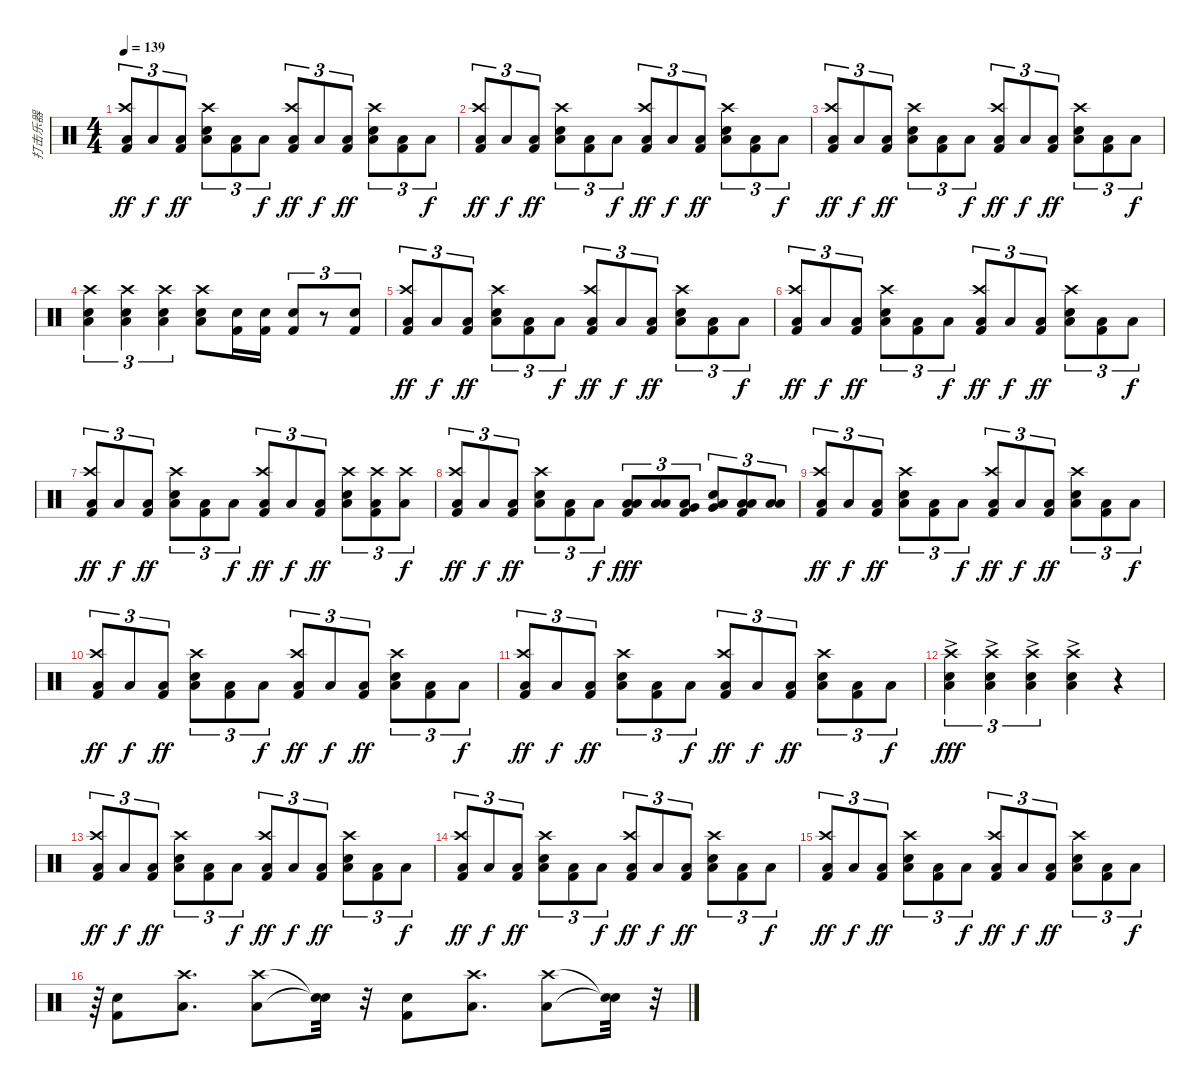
\track ("打击乐器" "打击乐器") {instrument percussion}
\staff {score}
\articulation defaults
\ts (4 4)
\tempo 139
\clef neutral
\ks c
("Kick (hit) 2" "Crash high (hit)" "Low Floor Tom (hit)").8{tu (3 2) dy ff} "Low Floor Tom (hit)".8{tu (3 2) dy f} ("Kick (hit) 2" "Low Floor Tom (hit)").8{tu (3 2) dy ff} ("Snare (hit) 2" "Crash high (hit)" "Low Floor Tom (hit)").8{tu (3 2)} ("Kick (hit) 2" "Low Floor Tom (hit)").8{tu (3 2)} "Low Floor Tom (hit)".8{tu (3 2) dy f} ("Kick (hit) 2" "Crash high (hit)" "Low Floor Tom (hit)").8{tu (3 2) dy ff} "Low Floor Tom (hit)".8{tu (3 2) dy f} ("Kick (hit) 2" "Low Floor Tom (hit)").8{tu (3 2) dy ff} ("Snare (hit) 2" "Crash high (hit)" "Low Floor Tom (hit)").8{tu (3 2)} ("Kick (hit) 2" "Low Floor Tom (hit)").8{tu (3 2)} "Low Floor Tom (hit)".8{tu (3 2) dy f} |
("Kick (hit) 2" "Crash high (hit)" "Low Floor Tom (hit)").8{tu (3 2) dy ff} "Low Floor Tom (hit)".8{tu (3 2) dy f} ("Kick (hit) 2" "Low Floor Tom (hit)").8{tu (3 2) dy ff} ("Snare (hit) 2" "Crash high (hit)" "Low Floor Tom (hit)").8{tu (3 2)} ("Kick (hit) 2" "Low Floor Tom (hit)").8{tu (3 2)} "Low Floor Tom (hit)".8{tu (3 2) dy f} ("Kick (hit) 2" "Crash high (hit)" "Low Floor Tom (hit)").8{tu (3 2) dy ff} "Low Floor Tom (hit)".8{tu (3 2) dy f} ("Kick (hit) 2" "Low Floor Tom (hit)").8{tu (3 2) dy ff} ("Snare (hit) 2" "Crash high (hit)" "Low Floor Tom (hit)").8{tu (3 2)} ("Kick (hit) 2" "Low Floor Tom (hit)").8{tu (3 2)} "Low Floor Tom (hit)".8{tu (3 2) dy f} |
("Kick (hit) 2" "Crash high (hit)" "Low Floor Tom (hit)").8{tu (3 2) dy ff} "Low Floor Tom (hit)".8{tu (3 2) dy f} ("Kick (hit) 2" "Low Floor Tom (hit)").8{tu (3 2) dy ff} ("Snare (hit) 2" "Crash high (hit)" "Low Floor Tom (hit)").8{tu (3 2)} ("Kick (hit) 2" "Low Floor Tom (hit)").8{tu (3 2)} "Low Floor Tom (hit)".8{tu (3 2) dy f} ("Kick (hit) 2" "Crash high (hit)" "Low Floor Tom (hit)").8{tu (3 2) dy ff} "Low Floor Tom (hit)".8{tu (3 2) dy f} ("Kick (hit) 2" "Low Floor Tom (hit)").8{tu (3 2) dy ff} ("Snare (hit) 2" "Crash high (hit)" "Low Floor Tom (hit)").8{tu (3 2)} ("Kick (hit) 2" "Low Floor Tom (hit)").8{tu (3 2)} "Low Floor Tom (hit)".8{tu (3 2) dy f} |
("Snare (hit) 2" "Crash high (hit)" "Low Floor Tom (hit)").4{tu (3 2)} ("Snare (hit) 2" "Crash high (hit)" "Low Floor Tom (hit)").4{tu (3 2)} ("Snare (hit) 2" "Crash high (hit)" "Low Floor Tom (hit)").4{tu (3 2)} ("Snare (hit) 2" "Crash high (hit)" "Low Floor Tom (hit)").8 ("Snare (hit) 2" "Kick (hit) 2").16 ("Snare (hit) 2" "Kick (hit) 2").16 ("Snare (hit) 2" "Kick (hit) 2").8{tu (3 2)} r.8{tu (3 2)} ("Snare (hit) 2" "Kick (hit) 2").8{tu (3 2)} |
("Kick (hit) 2" "Crash high (hit)" "Low Floor Tom (hit)").8{tu (3 2) dy ff} "Low Floor Tom (hit)".8{tu (3 2) dy f} ("Kick (hit) 2" "Low Floor Tom (hit)").8{tu (3 2) dy ff} ("Snare (hit) 2" "Crash high (hit)" "Low Floor Tom (hit)").8{tu (3 2)} ("Kick (hit) 2" "Low Floor Tom (hit)").8{tu (3 2)} "Low Floor Tom (hit)".8{tu (3 2) dy f} ("Kick (hit) 2" "Crash high (hit)" "Low Floor Tom (hit)").8{tu (3 2) dy ff} "Low Floor Tom (hit)".8{tu (3 2) dy f} ("Kick (hit) 2" "Low Floor Tom (hit)").8{tu (3 2) dy ff} ("Snare (hit) 2" "Crash high (hit)" "Low Floor Tom (hit)").8{tu (3 2)} ("Kick (hit) 2" "Low Floor Tom (hit)").8{tu (3 2)} "Low Floor Tom (hit)".8{tu (3 2) dy f} |
("Kick (hit) 2" "Crash high (hit)" "Low Floor Tom (hit)").8{tu (3 2) dy ff} "Low Floor Tom (hit)".8{tu (3 2) dy f} ("Kick (hit) 2" "Low Floor Tom (hit)").8{tu (3 2) dy ff} ("Snare (hit) 2" "Crash high (hit)" "Low Floor Tom (hit)").8{tu (3 2)} ("Kick (hit) 2" "Low Floor Tom (hit)").8{tu (3 2)} "Low Floor Tom (hit)".8{tu (3 2) dy f} ("Kick (hit) 2" "Crash high (hit)" "Low Floor Tom (hit)").8{tu (3 2) dy ff} "Low Floor Tom (hit)".8{tu (3 2) dy f} ("Kick (hit) 2" "Low Floor Tom (hit)").8{tu (3 2) dy ff} ("Snare (hit) 2" "Crash high (hit)" "Low Floor Tom (hit)").8{tu (3 2)} ("Kick (hit) 2" "Low Floor Tom (hit)").8{tu (3 2)} "Low Floor Tom (hit)".8{tu (3 2) dy f} |
("Kick (hit) 2" "Crash high (hit)" "Low Floor Tom (hit)").8{tu (3 2) dy ff} "Low Floor Tom (hit)".8{tu (3 2) dy f} ("Kick (hit) 2" "Low Floor Tom (hit)").8{tu (3 2) dy ff} ("Snare (hit) 2" "Crash high (hit)" "Low Floor Tom (hit)").8{tu (3 2)} ("Kick (hit) 2" "Low Floor Tom (hit)").8{tu (3 2)} "Low Floor Tom (hit)".8{tu (3 2) dy f} ("Kick (hit) 2" "Crash high (hit)" "Low Floor Tom (hit)").8{tu (3 2) dy ff} "Low Floor Tom (hit)".8{tu (3 2) dy f} ("Kick (hit) 2" "Low Floor Tom (hit)").8{tu (3 2) dy ff} ("Snare (hit) 2" "Crash high (hit)" "Low Floor Tom (hit)").8{tu (3 2)} ("Kick (hit) 2" "Crash high (hit)" "Low Floor Tom (hit)").8{tu (3 2)} ("Crash high (hit)" "Low Floor Tom (hit)").8{tu (3 2) dy f} |
("Kick (hit) 2" "Crash high (hit)" "Low Floor Tom (hit)").8{tu (3 2) dy ff} "Low Floor Tom (hit)".8{tu (3 2) dy f} ("Kick (hit) 2" "Low Floor Tom (hit)").8{tu (3 2) dy ff} ("Snare (hit) 2" "Crash high (hit)" "Low Floor Tom (hit)").8{tu (3 2)} ("Kick (hit) 2" "Low Floor Tom (hit)").8{tu (3 2)} "Low Floor Tom (hit)".8{tu (3 2) dy f} ("Kick (hit) 2" "Low Tom (hit)" "Low Floor Tom (hit)").8{tu (3 2) dy fff} ("Low Tom (hit)" "Low Floor Tom (hit)").8{tu (3 2)} ("Kick (hit) 2" "Very Low Tom (hit)" "Low Floor Tom (hit)").8{tu (3 2)} ("Snare (hit) 2" "Very Low Tom (hit)" "Low Floor Tom (hit)").8{tu (3 2)} ("Kick (hit) 2" "Low Floor Tom (hit)" "Low Floor Tom (hit)").8{tu (3 2)} ("Low Floor Tom (hit)" "Low Floor Tom (hit)").8{tu (3 2)} |
("Kick (hit) 2" "Crash high (hit)" "Low Floor Tom (hit)").8{tu (3 2) dy ff} "Low Floor Tom (hit)".8{tu (3 2) dy f} ("Kick (hit) 2" "Low Floor Tom (hit)").8{tu (3 2) dy ff} ("Snare (hit) 2" "Crash high (hit)" "Low Floor Tom (hit)").8{tu (3 2)} ("Kick (hit) 2" "Low Floor Tom (hit)").8{tu (3 2)} "Low Floor Tom (hit)".8{tu (3 2) dy f} ("Kick (hit) 2" "Crash high (hit)" "Low Floor Tom (hit)").8{tu (3 2) dy ff} "Low Floor Tom (hit)".8{tu (3 2) dy f} ("Kick (hit) 2" "Low Floor Tom (hit)").8{tu (3 2) dy ff} ("Snare (hit) 2" "Crash high (hit)" "Low Floor Tom (hit)").8{tu (3 2)} ("Kick (hit) 2" "Low Floor Tom (hit)").8{tu (3 2)} "Low Floor Tom (hit)".8{tu (3 2) dy f} |
("Kick (hit) 2" "Crash high (hit)" "Low Floor Tom (hit)").8{tu (3 2) dy ff} "Low Floor Tom (hit)".8{tu (3 2) dy f} ("Kick (hit) 2" "Low Floor Tom (hit)").8{tu (3 2) dy ff} ("Snare (hit) 2" "Crash high (hit)" "Low Floor Tom (hit)").8{tu (3 2)} ("Kick (hit) 2" "Low Floor Tom (hit)").8{tu (3 2)} "Low Floor Tom (hit)".8{tu (3 2) dy f} ("Kick (hit) 2" "Crash high (hit)" "Low Floor Tom (hit)").8{tu (3 2) dy ff} "Low Floor Tom (hit)".8{tu (3 2) dy f} ("Kick (hit) 2" "Low Floor Tom (hit)").8{tu (3 2) dy ff} ("Snare (hit) 2" "Crash high (hit)" "Low Floor Tom (hit)").8{tu (3 2)} ("Kick (hit) 2" "Low Floor Tom (hit)").8{tu (3 2)} "Low Floor Tom (hit)".8{tu (3 2) dy f} |
("Kick (hit) 2" "Crash high (hit)" "Low Floor Tom (hit)").8{tu (3 2) dy ff} "Low Floor Tom (hit)".8{tu (3 2) dy f} ("Kick (hit) 2" "Low Floor Tom (hit)").8{tu (3 2) dy ff} ("Snare (hit) 2" "Crash high (hit)" "Low Floor Tom (hit)").8{tu (3 2)} ("Kick (hit) 2" "Low Floor Tom (hit)").8{tu (3 2)} "Low Floor Tom (hit)".8{tu (3 2) dy f} ("Kick (hit) 2" "Crash high (hit)" "Low Floor Tom (hit)").8{tu (3 2) dy ff} "Low Floor Tom (hit)".8{tu (3 2) dy f} ("Kick (hit) 2" "Low Floor Tom (hit)").8{tu (3 2) dy ff} ("Snare (hit) 2" "Crash high (hit)" "Low Floor Tom (hit)").8{tu (3 2)} ("Kick (hit) 2" "Low Floor Tom (hit)").8{tu (3 2)} "Low Floor Tom (hit)".8{tu (3 2) dy f} |
("Snare (hit) 2"{ac} "Crash high (hit)" "Low Floor Tom (hit)").4{tu (3 2) dy fff} ("Snare (hit) 2"{ac} "Crash high (hit)" "Low Floor Tom (hit)").4{tu (3 2)} ("Snare (hit) 2"{ac} "Crash high (hit)" "Low Floor Tom (hit)").4{tu (3 2)} ("Snare (hit) 2"{ac} "Crash high (hit)" "Low Floor Tom (hit)").4 r.4 |
("Kick (hit) 2" "Crash high (hit)" "Low Floor Tom (hit)").8{tu (3 2) dy ff} "Low Floor Tom (hit)".8{tu (3 2) dy f} ("Kick (hit) 2" "Low Floor Tom (hit)").8{tu (3 2) dy ff} ("Snare (hit) 2" "Crash high (hit)" "Low Floor Tom (hit)").8{tu (3 2)} ("Kick (hit) 2" "Low Floor Tom (hit)").8{tu (3 2)} "Low Floor Tom (hit)".8{tu (3 2) dy f} ("Kick (hit) 2" "Crash high (hit)" "Low Floor Tom (hit)").8{tu (3 2) dy ff} "Low Floor Tom (hit)".8{tu (3 2) dy f} ("Kick (hit) 2" "Low Floor Tom (hit)").8{tu (3 2) dy ff} ("Snare (hit) 2" "Crash high (hit)" "Low Floor Tom (hit)").8{tu (3 2)} ("Kick (hit) 2" "Low Floor Tom (hit)").8{tu (3 2)} "Low Floor Tom (hit)".8{tu (3 2) dy f} |
("Kick (hit) 2" "Crash high (hit)" "Low Floor Tom (hit)").8{tu (3 2) dy ff} "Low Floor Tom (hit)".8{tu (3 2) dy f} ("Kick (hit) 2" "Low Floor Tom (hit)").8{tu (3 2) dy ff} ("Snare (hit) 2" "Crash high (hit)" "Low Floor Tom (hit)").8{tu (3 2)} ("Kick (hit) 2" "Low Floor Tom (hit)").8{tu (3 2)} "Low Floor Tom (hit)".8{tu (3 2) dy f} ("Kick (hit) 2" "Crash high (hit)" "Low Floor Tom (hit)").8{tu (3 2) dy ff} "Low Floor Tom (hit)".8{tu (3 2) dy f} ("Kick (hit) 2" "Low Floor Tom (hit)").8{tu (3 2) dy ff} ("Snare (hit) 2" "Crash high (hit)" "Low Floor Tom (hit)").8{tu (3 2)} ("Kick (hit) 2" "Low Floor Tom (hit)").8{tu (3 2)} "Low Floor Tom (hit)".8{tu (3 2) dy f} |
("Kick (hit) 2" "Crash high (hit)" "Low Floor Tom (hit)").8{tu (3 2) dy ff} "Low Floor Tom (hit)".8{tu (3 2) dy f} ("Kick (hit) 2" "Low Floor Tom (hit)").8{tu (3 2) dy ff} ("Snare (hit) 2" "Crash high (hit)" "Low Floor Tom (hit)").8{tu (3 2)} ("Kick (hit) 2" "Low Floor Tom (hit)").8{tu (3 2)} "Low Floor Tom (hit)".8{tu (3 2) dy f} ("Kick (hit) 2" "Crash high (hit)" "Low Floor Tom (hit)").8{tu (3 2) dy ff} "Low Floor Tom (hit)".8{tu (3 2) dy f} ("Kick (hit) 2" "Low Floor Tom (hit)").8{tu (3 2) dy ff} ("Snare (hit) 2" "Crash high (hit)" "Low Floor Tom (hit)").8{tu (3 2)} ("Kick (hit) 2" "Low Floor Tom (hit)").8{tu (3 2)} "Low Floor Tom (hit)".8{tu (3 2) dy f} |
r.64{tu (3 2)} ("Snare (hit) 2" "Kick (hit) 2").8 ("Crash high (hit)" "Low Floor Tom (hit)").8{d} ("Crash high (hit)" "Low Floor Tom (hit)").8 ("Snare (hit)"{t} "Snare (hit)"{t}).32 r.32 ("Snare (hit) 2" "Kick (hit) 2").8 ("Crash high (hit)" "Low Floor Tom (hit)").8{d} ("Crash high (hit)" "Low Floor Tom (hit)").8 ("Snare (hit)"{t} "Snare (hit)"{t}).32 r.32{tu (3 2)}
